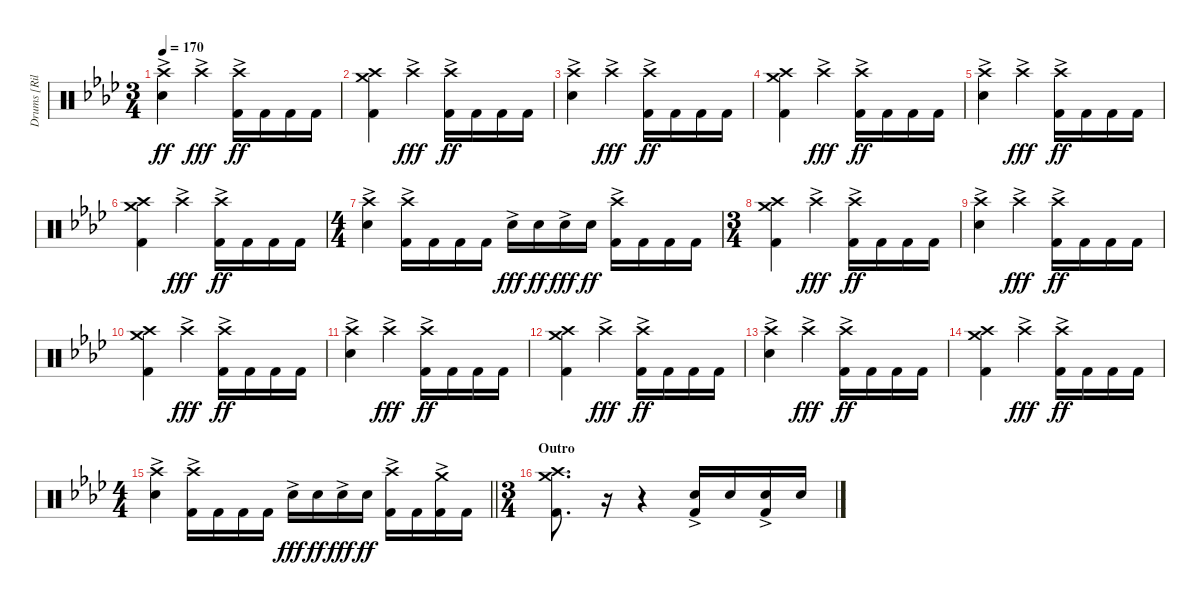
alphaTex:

\track ("Drums [Riley]" "Drums [Ril") {instrument percussion}
\staff {score}
\articulation defaults
\ts (3 4)
\tempo 170
\clef neutral
\ks ab
("Crash high (hit)"{ac} "Electric Snare (hit)").4{dy ff} "Crash high (hit)"{ac}.4{dy fff} ("Crash high (hit)"{ac} "Kick (hit) 2").16{dy ff} "Kick (hit) 2".16 "Kick (hit) 2".16 "Kick (hit) 2".16 |
("Crash medium (hit)" "Crash high (hit)" "Kick (hit) 2").4 "Crash high (hit)"{ac}.4{dy fff} ("Crash high (hit)"{ac} "Kick (hit) 2").16{dy ff} "Kick (hit) 2".16 "Kick (hit) 2".16 "Kick (hit) 2".16 |
("Crash high (hit)"{ac} "Electric Snare (hit)").4 "Crash high (hit)"{ac}.4{dy fff} ("Crash high (hit)"{ac} "Kick (hit) 2").16{dy ff} "Kick (hit) 2".16 "Kick (hit) 2".16 "Kick (hit) 2".16 |
("Crash medium (hit)" "Crash high (hit)" "Kick (hit) 2").4 "Crash high (hit)"{ac}.4{dy fff} ("Crash high (hit)"{ac} "Kick (hit) 2").16{dy ff} "Kick (hit) 2".16 "Kick (hit) 2".16 "Kick (hit) 2".16 |
("Crash high (hit)"{ac} "Electric Snare (hit)").4 "Crash high (hit)"{ac}.4{dy fff} ("Crash high (hit)"{ac} "Kick (hit) 2").16{dy ff} "Kick (hit) 2".16 "Kick (hit) 2".16 "Kick (hit) 2".16 |
("Crash medium (hit)" "Crash high (hit)" "Kick (hit) 2").4 "Crash high (hit)"{ac}.4{dy fff} ("Crash high (hit)"{ac} "Kick (hit) 2").16{dy ff} "Kick (hit) 2".16 "Kick (hit) 2".16 "Kick (hit) 2".16 |
\ts (4 4)
("Crash high (hit)"{ac} "Electric Snare (hit)").4 ("Crash high (hit)"{ac} "Kick (hit) 2").16 "Kick (hit) 2".16 "Kick (hit) 2".16 "Kick (hit) 2".16 "Electric Snare (hit)"{ac}.16{dy fff} "Electric Snare (hit)".16{dy ff} "Electric Snare (hit)"{ac}.16{dy fff} "Electric Snare (hit)".16{dy ff} ("Crash high (hit)"{ac} "Kick (hit) 2").16 "Kick (hit) 2".16 "Kick (hit) 2".16 "Kick (hit) 2".16 |
\ts (3 4)
("Crash medium (hit)" "Crash high (hit)" "Kick (hit) 2").4 "Crash high (hit)"{ac}.4{dy fff} ("Crash high (hit)"{ac} "Kick (hit) 2").16{dy ff} "Kick (hit) 2".16 "Kick (hit) 2".16 "Kick (hit) 2".16 |
("Crash high (hit)"{ac} "Electric Snare (hit)").4 "Crash high (hit)"{ac}.4{dy fff} ("Crash high (hit)"{ac} "Kick (hit) 2").16{dy ff} "Kick (hit) 2".16 "Kick (hit) 2".16 "Kick (hit) 2".16 |
("Crash medium (hit)" "Crash high (hit)" "Kick (hit) 2").4 "Crash high (hit)"{ac}.4{dy fff} ("Crash high (hit)"{ac} "Kick (hit) 2").16{dy ff} "Kick (hit) 2".16 "Kick (hit) 2".16 "Kick (hit) 2".16 |
("Crash high (hit)"{ac} "Electric Snare (hit)").4 "Crash high (hit)"{ac}.4{dy fff} ("Crash high (hit)"{ac} "Kick (hit) 2").16{dy ff} "Kick (hit) 2".16 "Kick (hit) 2".16 "Kick (hit) 2".16 |
("Crash medium (hit)" "Crash high (hit)" "Kick (hit) 2").4 "Crash high (hit)"{ac}.4{dy fff} ("Crash high (hit)"{ac} "Kick (hit) 2").16{dy ff} "Kick (hit) 2".16 "Kick (hit) 2".16 "Kick (hit) 2".16 |
("Crash high (hit)"{ac} "Electric Snare (hit)").4 "Crash high (hit)"{ac}.4{dy fff} ("Crash high (hit)"{ac} "Kick (hit) 2").16{dy ff} "Kick (hit) 2".16 "Kick (hit) 2".16 "Kick (hit) 2".16 |
("Crash medium (hit)" "Crash high (hit)" "Kick (hit) 2").4 "Crash high (hit)"{ac}.4{dy fff} ("Crash high (hit)"{ac} "Kick (hit) 2").16{dy ff} "Kick (hit) 2".16 "Kick (hit) 2".16 "Kick (hit) 2".16 |
\ts (4 4)
\barLineRight lightlight
("Crash high (hit)"{ac} "Electric Snare (hit)").4 ("Crash high (hit)"{ac} "Kick (hit) 2").16 "Kick (hit) 2".16 "Kick (hit) 2".16 "Kick (hit) 2".16 "Electric Snare (hit)"{ac}.16{dy fff} "Electric Snare (hit)".16{dy ff} "Electric Snare (hit)"{ac}.16{dy fff} "Electric Snare (hit)".16{dy ff} ("Crash high (hit)"{ac} "Kick (hit) 2").16 "Kick (hit) 2".16 ("Crash medium (hit)"{ac} "Kick (hit) 2").16 "Kick (hit) 2".16 |
\ts (3 4)
\section ("" "Outro")
("Crash medium (hit)" "Crash high (hit)" "Kick (hit) 2").8{d} r.16{volume 0} r.4 ("Electric Snare (hit)"{ac} "Kick (hit) 2").16{volume 14} "Electric Snare (hit)".16 ("Electric Snare (hit)"{ac} "Kick (hit) 2").16 "Electric Snare (hit)".16
